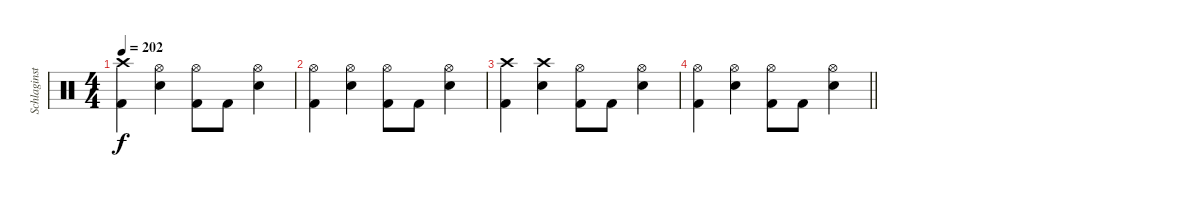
\track ("Schlaginstrumente - Auswahl" "Schlaginst") {instrument percussion bank 1}
\staff {score}
\articulation defaults
\ts (4 4)
\tempo 202
\clef neutral
\ks c
("Crash high (hit)" "Kick (hit) 2").4{dy f} ("Hi-Hat (open)" "Snare (hit) 2").4 ("Hi-Hat (open)" "Kick (hit) 2").8 "Kick (hit) 2".8 ("Hi-Hat (open)" "Snare (hit) 2").4 |
("Hi-Hat (open)" "Kick (hit) 2").4 ("Hi-Hat (open)" "Snare (hit) 2").4 ("Hi-Hat (open)" "Kick (hit) 2").8 "Kick (hit) 2".8 ("Hi-Hat (open)" "Snare (hit) 2").4 |
("Crash high (hit)" "Kick (hit) 2").4 ("Crash high (hit)" "Snare (hit) 2").4 ("Hi-Hat (open)" "Kick (hit) 2").8 "Kick (hit) 2".8 ("Hi-Hat (open)" "Snare (hit) 2").4 |
\barLineRight lightlight
("Hi-Hat (open)" "Kick (hit) 2").4 ("Hi-Hat (open)" "Snare (hit) 2").4 ("Hi-Hat (open)" "Kick (hit) 2").8 "Kick (hit) 2".8 ("Hi-Hat (open)" "Snare (hit) 2").4
